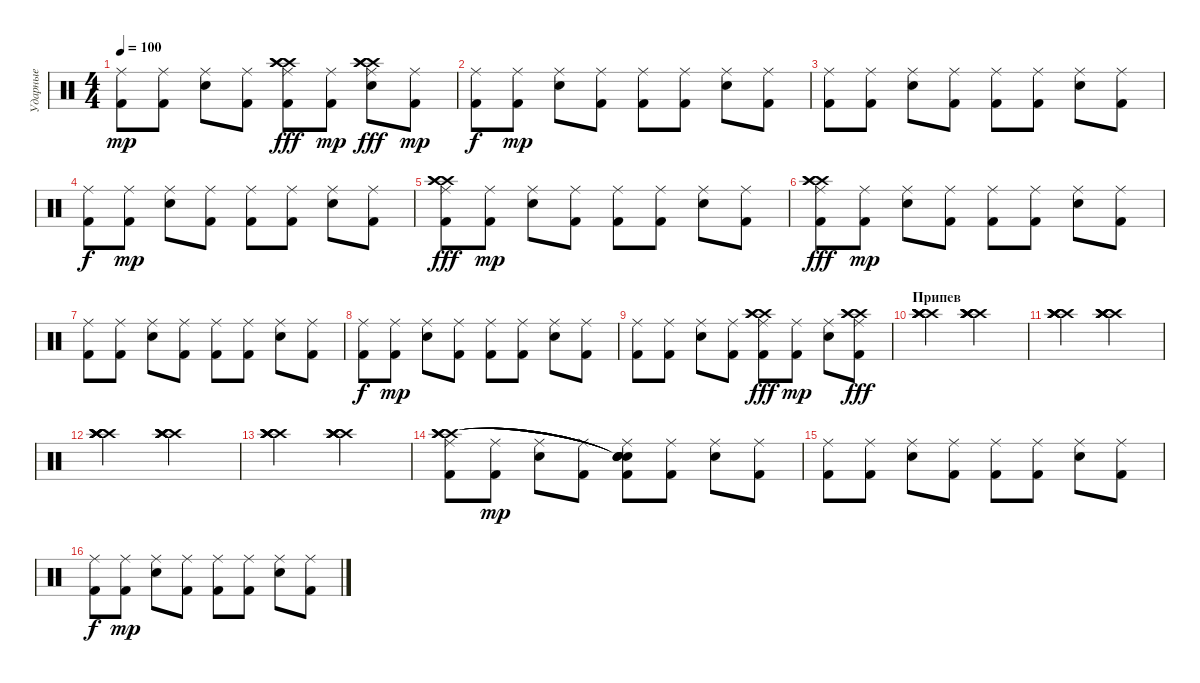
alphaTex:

\track ("Ударные" "Ударные") {instrument percussion}
\staff {score}
\articulation defaults
\ts (4 4)
\tempo 100
\clef neutral
\ks c
("Kick (hit) 2" "Ride (middle)").8{dy mp} ("Kick (hit) 2" "Ride (middle)").8 ("Electric Snare (hit)" "Ride (middle)").8 ("Kick (hit) 2" "Ride (middle)").8 ("Kick (hit) 2" "Ride (middle)" "Crash high (hit)" "Crash high (hit)" "Crash high (hit)").8{dy fff} ("Kick (hit) 2" "Ride (middle)").8{dy mp} ("Electric Snare (hit)" "Ride (middle)" "Crash high (hit)" "Crash high (hit)" "Crash high (hit)").8{dy fff} ("Kick (hit) 2" "Ride (middle)").8{dy mp} |
("Kick (hit) 2" "Ride (middle)").8{dy f} ("Kick (hit) 2" "Ride (middle)").8{dy mp} ("Electric Snare (hit)" "Ride (middle)").8 ("Kick (hit) 2" "Ride (middle)").8 ("Kick (hit) 2" "Ride (middle)").8 ("Kick (hit) 2" "Ride (middle)").8 ("Electric Snare (hit)" "Ride (middle)").8 ("Kick (hit) 2" "Ride (middle)").8 |
("Kick (hit) 2" "Ride (middle)").8 ("Kick (hit) 2" "Ride (middle)").8 ("Electric Snare (hit)" "Ride (middle)").8 ("Kick (hit) 2" "Ride (middle)").8 ("Kick (hit) 2" "Ride (middle)").8 ("Kick (hit) 2" "Ride (middle)").8 ("Electric Snare (hit)" "Ride (middle)").8 ("Kick (hit) 2" "Ride (middle)").8 |
("Kick (hit) 2" "Ride (middle)").8{dy f} ("Kick (hit) 2" "Ride (middle)").8{dy mp} ("Electric Snare (hit)" "Ride (middle)").8 ("Kick (hit) 2" "Ride (middle)").8 ("Kick (hit) 2" "Ride (middle)").8 ("Kick (hit) 2" "Ride (middle)").8 ("Electric Snare (hit)" "Ride (middle)").8 ("Kick (hit) 2" "Ride (middle)").8 |
("Kick (hit) 2" "Ride (middle)" "Crash high (hit)" "Crash high (hit)" "Crash high (hit)").8{dy fff} ("Kick (hit) 2" "Ride (middle)").8{dy mp} ("Electric Snare (hit)" "Ride (middle)").8 ("Kick (hit) 2" "Ride (middle)").8 ("Kick (hit) 2" "Ride (middle)").8 ("Kick (hit) 2" "Ride (middle)").8 ("Electric Snare (hit)" "Ride (middle)").8 ("Kick (hit) 2" "Ride (middle)").8 |
("Kick (hit) 2" "Ride (middle)" "Crash high (hit)" "Crash high (hit)" "Crash high (hit)").8{dy fff} ("Kick (hit) 2" "Ride (middle)").8{dy mp} ("Electric Snare (hit)" "Ride (middle)").8 ("Kick (hit) 2" "Ride (middle)").8 ("Kick (hit) 2" "Ride (middle)").8 ("Kick (hit) 2" "Ride (middle)").8 ("Electric Snare (hit)" "Ride (middle)").8 ("Kick (hit) 2" "Ride (middle)").8 |
("Kick (hit) 2" "Ride (middle)").8 ("Kick (hit) 2" "Ride (middle)").8 ("Electric Snare (hit)" "Ride (middle)").8 ("Kick (hit) 2" "Ride (middle)").8 ("Kick (hit) 2" "Ride (middle)").8 ("Kick (hit) 2" "Ride (middle)").8 ("Electric Snare (hit)" "Ride (middle)").8 ("Kick (hit) 2" "Ride (middle)").8 |
("Kick (hit) 2" "Ride (middle)").8{dy f} ("Kick (hit) 2" "Ride (middle)").8{dy mp} ("Electric Snare (hit)" "Ride (middle)").8 ("Kick (hit) 2" "Ride (middle)").8 ("Kick (hit) 2" "Ride (middle)").8 ("Kick (hit) 2" "Ride (middle)").8 ("Electric Snare (hit)" "Ride (middle)").8 ("Kick (hit) 2" "Ride (middle)").8 |
("Kick (hit) 2" "Ride (middle)").8 ("Kick (hit) 2" "Ride (middle)").8 ("Electric Snare (hit)" "Ride (middle)").8 ("Kick (hit) 2" "Ride (middle)").8 ("Kick (hit) 2" "Ride (middle)" "Crash high (hit)" "Crash high (hit)" "Crash high (hit)").8{dy fff} ("Kick (hit) 2" "Ride (middle)").8{dy mp} ("Electric Snare (hit)" "Ride (middle)").8 ("Kick (hit) 2" "Ride (middle)" "Crash high (hit)" "Crash high (hit)" "Crash high (hit)").8{dy fff} |
\section ("" "Припев")
("Crash high (hit)" "Crash high (hit)" "Crash high (hit)" "Crash high (hit)" "Crash high (hit)" "Crash high (hit)").2 ("Crash high (hit)" "Crash high (hit)" "Crash high (hit)" "Crash high (hit)" "Crash high (hit)" "Crash high (hit)").2 |
("Crash high (hit)" "Crash high (hit)" "Crash high (hit)" "Crash high (hit)" "Crash high (hit)" "Crash high (hit)").2 ("Crash high (hit)" "Crash high (hit)" "Crash high (hit)" "Crash high (hit)" "Crash high (hit)" "Crash high (hit)").2 |
("Crash high (hit)" "Crash high (hit)" "Crash high (hit)" "Crash high (hit)" "Crash high (hit)" "Crash high (hit)").2 ("Crash high (hit)" "Crash high (hit)" "Crash high (hit)" "Crash high (hit)" "Crash high (hit)" "Crash high (hit)").2 |
("Crash high (hit)" "Crash high (hit)" "Crash high (hit)" "Crash high (hit)" "Crash high (hit)" "Crash high (hit)").2 ("Crash high (hit)" "Crash high (hit)" "Crash high (hit)" "Crash high (hit)" "Crash high (hit)" "Crash high (hit)").2 |
("Kick (hit) 2" "Ride (middle)" "Crash high (hit)" "Crash high (hit)" "Crash high (hit)" "Crash high (hit)").8 ("Kick (hit) 2" "Ride (middle)").8{dy mp} ("Electric Snare (hit)" "Ride (middle)").8 ("Kick (hit) 2" "Ride (middle)").8 ("Kick (hit) 2" "Ride (middle)" "Snare (hit)"{t} "Snare (hit)"{t} "Snare (hit)"{t} "Snare (hit)"{t}).8 ("Kick (hit) 2" "Ride (middle)").8 ("Electric Snare (hit)" "Ride (middle)").8 ("Kick (hit) 2" "Ride (middle)").8 |
("Kick (hit) 2" "Ride (middle)").8 ("Kick (hit) 2" "Ride (middle)").8 ("Electric Snare (hit)" "Ride (middle)").8 ("Kick (hit) 2" "Ride (middle)").8 ("Kick (hit) 2" "Ride (middle)").8 ("Kick (hit) 2" "Ride (middle)").8 ("Electric Snare (hit)" "Ride (middle)").8 ("Kick (hit) 2" "Ride (middle)").8 |
("Kick (hit) 2" "Ride (middle)").8{dy f} ("Kick (hit) 2" "Ride (middle)").8{dy mp} ("Electric Snare (hit)" "Ride (middle)").8 ("Kick (hit) 2" "Ride (middle)").8 ("Kick (hit) 2" "Ride (middle)").8 ("Kick (hit) 2" "Ride (middle)").8 ("Electric Snare (hit)" "Ride (middle)").8 ("Kick (hit) 2" "Ride (middle)").8
